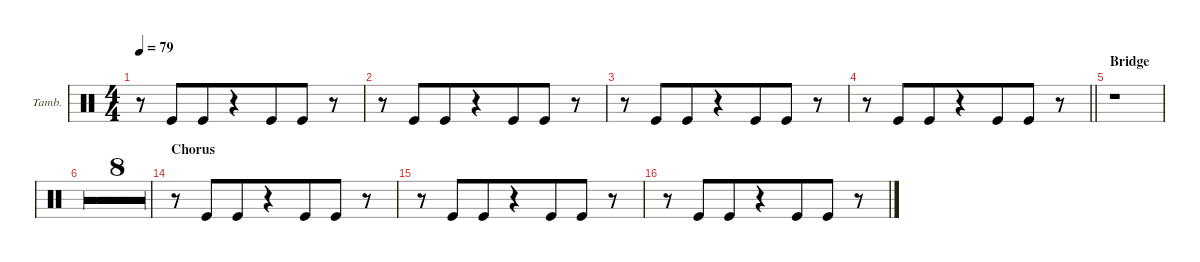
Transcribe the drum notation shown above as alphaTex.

\defaultSystemsLayout 4
\hideDynamics
\bracketExtendMode groupsimilarinstruments
\firstSystemTrackNameOrientation horizontal
\otherSystemsTrackNameOrientation horizontal
\track ("Tambourine" "Tamb.") {multiBarRest instrument percussion}
\staff {score}
\articulation defaults
\ts (4 4)
\tempo 79
\clef neutral
\ks c
r.8{dy mf beam merge} "Kick (hit)".8{beam merge} "Kick (hit)".8{beam merge} r.4{beam merge} "Kick (hit)".8{beam merge} "Kick (hit)".8{beam merge} r.8{beam merge} |
r.8{beam merge} "Kick (hit)".8{beam merge} "Kick (hit)".8{beam merge} r.4{beam merge} "Kick (hit)".8{beam merge} "Kick (hit)".8{beam merge} r.8{beam merge} |
r.8{beam merge} "Kick (hit)".8{beam merge} "Kick (hit)".8{beam merge} r.4{beam merge} "Kick (hit)".8{beam merge} "Kick (hit)".8{beam merge} r.8{beam merge} |
\barLineRight lightlight
r.8{beam merge} "Kick (hit)".8{beam merge} "Kick (hit)".8{beam merge} r.4{beam merge} "Kick (hit)".8{beam merge} "Kick (hit)".8{beam merge} r.8{beam merge} |
\section ("" "Bridge")
r.1{beam merge} |
r.1{beam merge} |
r.1{beam merge} |
r.1{beam merge} |
r.1{beam merge} |
r.1{beam merge} |
r.1{beam merge} |
\barLineRight lightlight
r.1{beam merge} |
r.1 |
\section ("" "Chorus")
r.8{beam merge} "Kick (hit)".8{beam merge} "Kick (hit)".8{beam merge} r.4{beam merge} "Kick (hit)".8{beam merge} "Kick (hit)".8{beam merge} r.8{beam merge} |
r.8{beam merge} "Kick (hit)".8{beam merge} "Kick (hit)".8{beam merge} r.4{beam merge} "Kick (hit)".8{beam merge} "Kick (hit)".8{beam merge} r.8{beam merge} |
r.8{beam merge} "Kick (hit)".8{beam merge} "Kick (hit)".8{beam merge} r.4{beam merge} "Kick (hit)".8{beam merge} "Kick (hit)".8{beam merge} r.8{beam merge}
